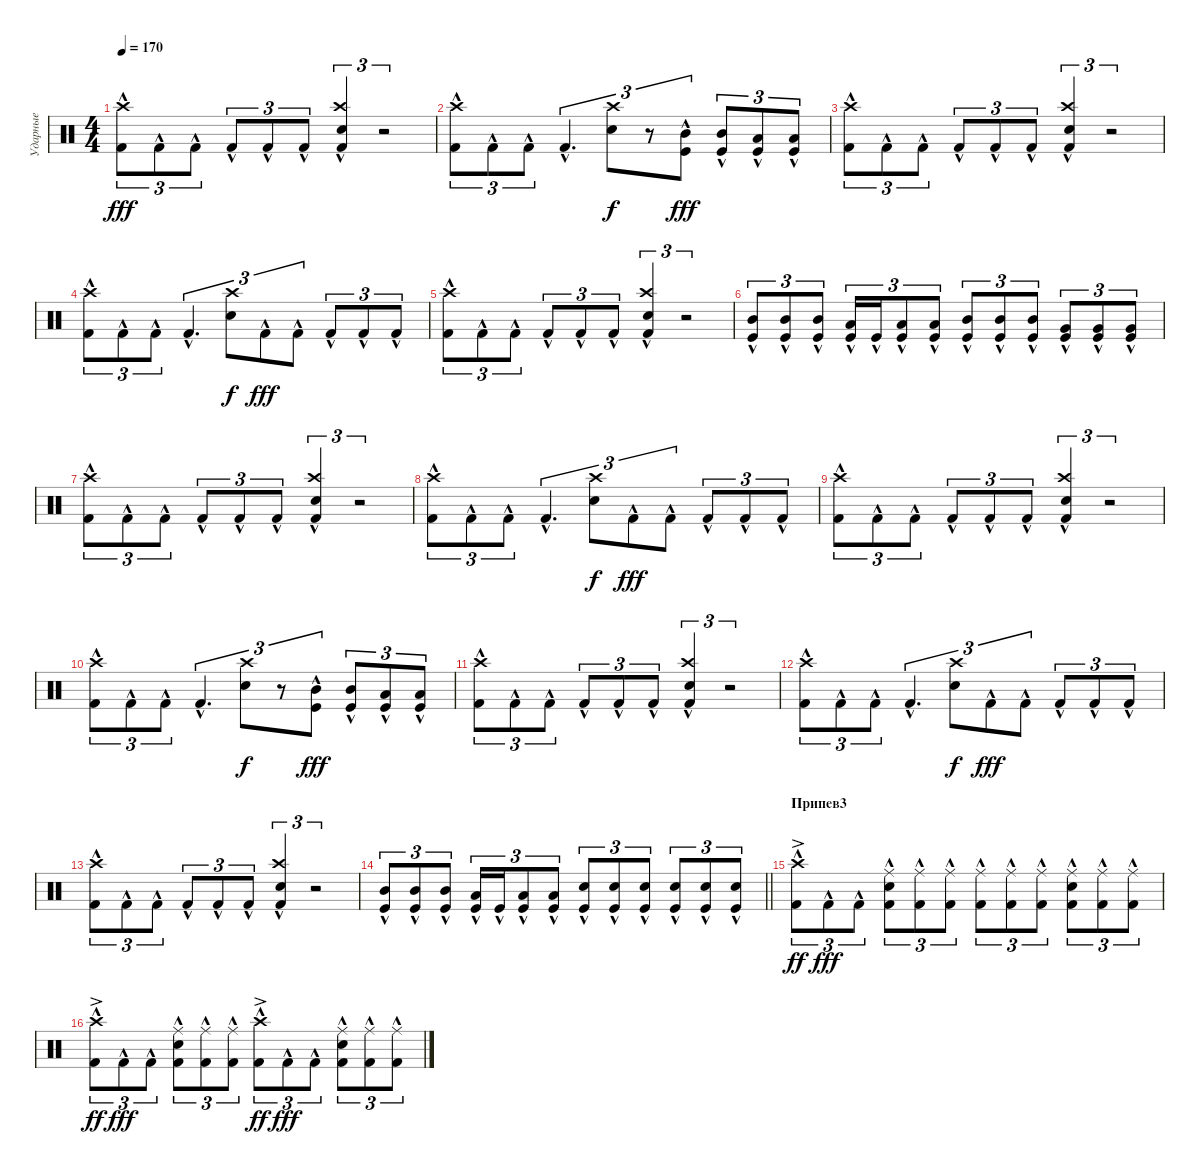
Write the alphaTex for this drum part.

\track ("Ударные" "Ударные") {instrument percussion}
\staff {score}
\articulation defaults
\ts (4 4)
\tempo 170
\clef neutral
\ks c
("Kick (hit) 2"{hac} "Crash high (hit)").8{tu (3 2) dy fff} "Kick (hit) 2"{hac}.8{tu (3 2)} "Kick (hit) 2"{hac}.8{tu (3 2)} "Kick (hit) 2"{hac}.8{tu (3 2)} "Kick (hit) 2"{hac}.8{tu (3 2)} "Kick (hit) 2"{hac}.8{tu (3 2)} ("Kick (hit) 2"{hac} "Snare (hit) 2" "Crash high (hit)").4{tu (3 2)} r.2{tu (3 2)} |
("Kick (hit) 2"{hac} "Crash high (hit)").8{tu (3 2)} "Kick (hit) 2"{hac}.8{tu (3 2)} "Kick (hit) 2"{hac}.8{tu (3 2)} "Kick (hit) 2"{hac}.4{d tu (3 2)} ("Crash high (hit)" "Snare (hit) 2").8{tu (3 2) dy f} r.8{tu (3 2)} ("Mid Tom (hit)"{hac} "Kick (hit)").8{tu (3 2) dy fff} ("Mid Tom (hit)"{hac} "Kick (hit)").8{tu (3 2)} ("Low Tom (hit)"{hac} "Kick (hit)").8{tu (3 2)} ("Low Tom (hit)"{hac} "Kick (hit)").8{tu (3 2)} |
("Kick (hit) 2"{hac} "Crash high (hit)").8{tu (3 2)} "Kick (hit) 2"{hac}.8{tu (3 2)} "Kick (hit) 2"{hac}.8{tu (3 2)} "Kick (hit) 2"{hac}.8{tu (3 2)} "Kick (hit) 2"{hac}.8{tu (3 2)} "Kick (hit) 2"{hac}.8{tu (3 2)} ("Kick (hit) 2"{hac} "Snare (hit) 2" "Crash high (hit)").4{tu (3 2)} r.2{tu (3 2)} |
("Kick (hit) 2"{hac} "Crash high (hit)").8{tu (3 2)} "Kick (hit) 2"{hac}.8{tu (3 2)} "Kick (hit) 2"{hac}.8{tu (3 2)} "Kick (hit) 2"{hac}.4{d tu (3 2)} ("Snare (hit) 2" "Crash high (hit)").8{tu (3 2) dy f} "Kick (hit) 2"{hac}.8{tu (3 2) dy fff} "Kick (hit) 2"{hac}.8{tu (3 2)} "Kick (hit) 2"{hac}.8{tu (3 2)} "Kick (hit) 2"{hac}.8{tu (3 2)} "Kick (hit) 2"{hac}.8{tu (3 2)} |
("Kick (hit) 2"{hac} "Crash high (hit)").8{tu (3 2)} "Kick (hit) 2"{hac}.8{tu (3 2)} "Kick (hit) 2"{hac}.8{tu (3 2)} "Kick (hit) 2"{hac}.8{tu (3 2)} "Kick (hit) 2"{hac}.8{tu (3 2)} "Kick (hit) 2"{hac}.8{tu (3 2)} ("Kick (hit) 2"{hac} "Snare (hit) 2" "Crash high (hit)").4{tu (3 2)} r.2{tu (3 2)} |
("Mid Tom (hit)"{hac} "Kick (hit)"{hac}).8{tu (3 2)} ("Mid Tom (hit)"{hac} "Kick (hit)"{hac}).8{tu (3 2)} ("Mid Tom (hit)"{hac} "Kick (hit)"{hac}).8{tu (3 2)} ("Low Tom (hit)"{hac} "Kick (hit)"{hac}).16{tu (3 2)} "Kick (hit)"{hac}.16{tu (3 2)} ("Low Tom (hit)"{hac} "Kick (hit)"{hac}).8{tu (3 2)} ("Low Tom (hit)"{hac} "Kick (hit)"{hac}).8{tu (3 2)} ("Mid Tom (hit)"{hac} "Kick (hit)"{hac}).8{tu (3 2)} ("Mid Tom (hit)"{hac} "Kick (hit)"{hac}).8{tu (3 2)} ("Mid Tom (hit)"{hac} "Kick (hit)"{hac}).8{tu (3 2)} ("Very Low Tom (hit)"{hac} "Kick (hit)"{hac}).8{tu (3 2)} ("Very Low Tom (hit)"{hac} "Kick (hit)"{hac}).8{tu (3 2)} ("Very Low Tom (hit)"{hac} "Kick (hit)"{hac}).8{tu (3 2)} |
("Kick (hit) 2"{hac} "Crash high (hit)").8{tu (3 2)} "Kick (hit) 2"{hac}.8{tu (3 2)} "Kick (hit) 2"{hac}.8{tu (3 2)} "Kick (hit) 2"{hac}.8{tu (3 2)} "Kick (hit) 2"{hac}.8{tu (3 2)} "Kick (hit) 2"{hac}.8{tu (3 2)} ("Kick (hit) 2"{hac} "Snare (hit) 2" "Crash high (hit)").4{tu (3 2)} r.2{tu (3 2)} |
("Kick (hit) 2"{hac} "Crash high (hit)").8{tu (3 2)} "Kick (hit) 2"{hac}.8{tu (3 2)} "Kick (hit) 2"{hac}.8{tu (3 2)} "Kick (hit) 2"{hac}.4{d tu (3 2)} ("Snare (hit) 2" "Crash high (hit)").8{tu (3 2) dy f} "Kick (hit) 2"{hac}.8{tu (3 2) dy fff} "Kick (hit) 2"{hac}.8{tu (3 2)} "Kick (hit) 2"{hac}.8{tu (3 2)} "Kick (hit) 2"{hac}.8{tu (3 2)} "Kick (hit) 2"{hac}.8{tu (3 2)} |
("Kick (hit) 2"{hac} "Crash high (hit)").8{tu (3 2)} "Kick (hit) 2"{hac}.8{tu (3 2)} "Kick (hit) 2"{hac}.8{tu (3 2)} "Kick (hit) 2"{hac}.8{tu (3 2)} "Kick (hit) 2"{hac}.8{tu (3 2)} "Kick (hit) 2"{hac}.8{tu (3 2)} ("Kick (hit) 2"{hac} "Snare (hit) 2" "Crash high (hit)").4{tu (3 2)} r.2{tu (3 2)} |
("Kick (hit) 2"{hac} "Crash high (hit)").8{tu (3 2)} "Kick (hit) 2"{hac}.8{tu (3 2)} "Kick (hit) 2"{hac}.8{tu (3 2)} "Kick (hit) 2"{hac}.4{d tu (3 2)} ("Crash high (hit)" "Snare (hit) 2").8{tu (3 2) dy f} r.8{tu (3 2)} ("Mid Tom (hit)"{hac} "Kick (hit)").8{tu (3 2) dy fff} ("Mid Tom (hit)"{hac} "Kick (hit)").8{tu (3 2)} ("Low Tom (hit)"{hac} "Kick (hit)").8{tu (3 2)} ("Low Tom (hit)"{hac} "Kick (hit)").8{tu (3 2)} |
("Kick (hit) 2"{hac} "Crash high (hit)").8{tu (3 2)} "Kick (hit) 2"{hac}.8{tu (3 2)} "Kick (hit) 2"{hac}.8{tu (3 2)} "Kick (hit) 2"{hac}.8{tu (3 2)} "Kick (hit) 2"{hac}.8{tu (3 2)} "Kick (hit) 2"{hac}.8{tu (3 2)} ("Kick (hit) 2"{hac} "Snare (hit) 2" "Crash high (hit)").4{tu (3 2)} r.2{tu (3 2)} |
("Kick (hit) 2"{hac} "Crash high (hit)").8{tu (3 2)} "Kick (hit) 2"{hac}.8{tu (3 2)} "Kick (hit) 2"{hac}.8{tu (3 2)} "Kick (hit) 2"{hac}.4{d tu (3 2)} ("Snare (hit) 2" "Crash high (hit)").8{tu (3 2) dy f} "Kick (hit) 2"{hac}.8{tu (3 2) dy fff} "Kick (hit) 2"{hac}.8{tu (3 2)} "Kick (hit) 2"{hac}.8{tu (3 2)} "Kick (hit) 2"{hac}.8{tu (3 2)} "Kick (hit) 2"{hac}.8{tu (3 2)} |
("Kick (hit) 2"{hac} "Crash high (hit)").8{tu (3 2)} "Kick (hit) 2"{hac}.8{tu (3 2)} "Kick (hit) 2"{hac}.8{tu (3 2)} "Kick (hit) 2"{hac}.8{tu (3 2)} "Kick (hit) 2"{hac}.8{tu (3 2)} "Kick (hit) 2"{hac}.8{tu (3 2)} ("Kick (hit) 2"{hac} "Snare (hit) 2" "Crash high (hit)").4{tu (3 2)} r.2{tu (3 2)} |
\barLineRight lightlight
("Mid Tom (hit)"{hac} "Kick (hit)"{hac}).8{tu (3 2)} ("Mid Tom (hit)"{hac} "Kick (hit)"{hac}).8{tu (3 2)} ("Mid Tom (hit)"{hac} "Kick (hit)"{hac}).8{tu (3 2)} ("Low Tom (hit)"{hac} "Kick (hit)"{hac}).16{tu (3 2)} "Kick (hit)"{hac}.16{tu (3 2)} ("Low Tom (hit)"{hac} "Kick (hit)"{hac}).8{tu (3 2)} ("Low Tom (hit)"{hac} "Kick (hit)"{hac}).8{tu (3 2)} ("Snare (hit) 2" "Kick (hit)"{hac}).8{tu (3 2)} ("Snare (hit) 2" "Kick (hit)"{hac}).8{tu (3 2)} ("Snare (hit) 2" "Kick (hit)"{hac}).8{tu (3 2)} ("Snare (hit) 2" "Kick (hit)"{hac}).8{tu (3 2)} ("Snare (hit) 2" "Kick (hit)"{hac}).8{tu (3 2)} ("Snare (hit) 2" "Kick (hit)"{hac}).8{tu (3 2)} |
\section ("" "Припев3")
("Kick (hit) 2"{hac} "Crash high (hit)"{ac}).8{tu (3 2) dy ff} "Kick (hit) 2"{hac}.8{tu (3 2) dy fff} "Kick (hit) 2"{hac}.8{tu (3 2)} ("Kick (hit) 2"{hac} "Snare (hit) 2" "Ride (middle)"{hac}).8{tu (3 2)} ("Kick (hit) 2"{hac} "Ride (middle)"{hac}).8{tu (3 2)} ("Kick (hit) 2"{hac} "Ride (middle)"{hac}).8{tu (3 2)} ("Kick (hit) 2"{hac} "Ride (middle)").8{tu (3 2)} ("Kick (hit) 2"{hac} "Ride (middle)"{hac}).8{tu (3 2)} ("Kick (hit) 2"{hac} "Ride (middle)"{hac}).8{tu (3 2)} ("Kick (hit) 2"{hac} "Snare (hit) 2" "Ride (middle)"{hac}).8{tu (3 2)} ("Kick (hit) 2"{hac} "Ride (middle)"{hac}).8{tu (3 2)} ("Kick (hit) 2"{hac} "Ride (middle)"{hac}).8{tu (3 2)} |
("Kick (hit) 2"{hac} "Crash high (hit)"{ac}).8{tu (3 2) dy ff} "Kick (hit) 2"{hac}.8{tu (3 2) dy fff} "Kick (hit) 2"{hac}.8{tu (3 2)} ("Kick (hit) 2"{hac} "Snare (hit) 2" "Ride (middle)"{hac}).8{tu (3 2)} ("Kick (hit) 2"{hac} "Ride (middle)"{hac}).8{tu (3 2)} ("Kick (hit) 2"{hac} "Ride (middle)"{hac}).8{tu (3 2)} ("Kick (hit) 2"{hac} "Crash high (hit)"{ac}).8{tu (3 2) dy ff} "Kick (hit) 2"{hac}.8{tu (3 2) dy fff} "Kick (hit) 2"{hac}.8{tu (3 2)} ("Kick (hit) 2"{hac} "Snare (hit) 2" "Ride (middle)"{hac}).8{tu (3 2)} ("Kick (hit) 2"{hac} "Ride (middle)"{hac}).8{tu (3 2)} ("Kick (hit) 2"{hac} "Ride (middle)"{hac}).8{tu (3 2)}
